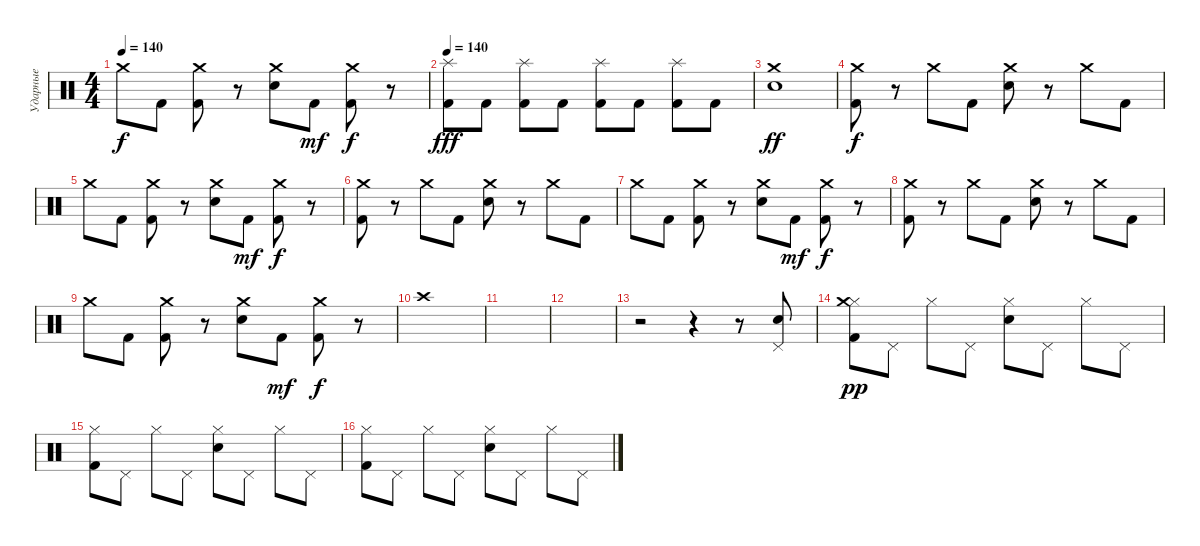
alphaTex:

\track ("Ударные" "Ударные") {instrument percussion}
\staff {score}
\articulation defaults
\ts (4 4)
\tempo 140
\clef neutral
\ks c "Crash medium (hit)".8{dy f} "Kick (hit) 2".8
("Crash medium (hit)" "Kick (hit) 2").8 r.8 ("Crash medium (hit)" "Snare (hit) 2").8 "Kick (hit) 2".8{dy mf} ("Crash medium (hit)" "Kick (hit) 2").8{dy f} r.8 |
\tempo 140
("Splash (hit)" "Kick (hit) 2").8{dy fff} "Kick (hit) 2".8 ("Splash (hit)" "Kick (hit) 2").8 "Kick (hit) 2".8 ("Splash (hit)" "Kick (hit) 2").8 "Kick (hit) 2".8 ("Splash (hit)" "Kick (hit) 2").8 "Kick (hit) 2".8 |
("Crash medium (hit)" "Snare (hit) 2").1{dy ff} |
("Crash medium (hit)" "Kick (hit) 2").8{dy f} r.8 "Crash medium (hit)".8 "Kick (hit) 2".8 ("Crash medium (hit)" "Snare (hit) 2").8 r.8 "Crash medium (hit)".8 "Kick (hit) 2".8 |
"Crash medium (hit)".8 "Kick (hit) 2".8 ("Crash medium (hit)" "Kick (hit) 2").8 r.8 ("Crash medium (hit)" "Snare (hit) 2").8 "Kick (hit) 2".8{dy mf} ("Crash medium (hit)" "Kick (hit) 2").8{dy f} r.8 |
("Crash medium (hit)" "Kick (hit) 2").8 r.8 "Crash medium (hit)".8 "Kick (hit) 2".8 ("Crash medium (hit)" "Snare (hit) 2").8 r.8 "Crash medium (hit)".8 "Kick (hit) 2".8 |
"Crash medium (hit)".8 "Kick (hit) 2".8 ("Crash medium (hit)" "Kick (hit) 2").8 r.8 ("Crash medium (hit)" "Snare (hit) 2").8 "Kick (hit) 2".8{dy mf} ("Crash medium (hit)" "Kick (hit) 2").8{dy f} r.8 |
("Crash medium (hit)" "Kick (hit) 2").8 r.8 "Crash medium (hit)".8 "Kick (hit) 2".8 ("Crash medium (hit)" "Snare (hit) 2").8 r.8 "Crash medium (hit)".8 "Kick (hit) 2".8 |
"Crash medium (hit)".8 "Kick (hit) 2".8 ("Crash medium (hit)" "Kick (hit) 2").8 r.8 ("Crash medium (hit)" "Snare (hit) 2").8 "Kick (hit) 2".8{dy mf} ("Crash medium (hit)" "Kick (hit) 2").8{dy f} r.8 |
"Crash high (hit)".1 |
|
|
r.2 r.4 r.8 ("Pedal Hi-Hat (hit)" "Snare (hit) 2").8 |
("Hi-Hat (closed)" "Crash medium (hit)" "Kick (hit) 2").8{dy pp} "Pedal Hi-Hat (hit)".8 "Hi-Hat (closed)".8 "Pedal Hi-Hat (hit)".8 ("Hi-Hat (closed)" "Snare (hit) 2").8 "Pedal Hi-Hat (hit)".8 "Hi-Hat (closed)".8 "Pedal Hi-Hat (hit)".8 |
("Hi-Hat (closed)" "Kick (hit) 2").8 "Pedal Hi-Hat (hit)".8 "Hi-Hat (closed)".8 "Pedal Hi-Hat (hit)".8 ("Hi-Hat (closed)" "Snare (hit) 2").8 "Pedal Hi-Hat (hit)".8 "Hi-Hat (closed)".8 "Pedal Hi-Hat (hit)".8 |
("Hi-Hat (closed)" "Kick (hit) 2").8 "Pedal Hi-Hat (hit)".8 "Hi-Hat (closed)".8 "Pedal Hi-Hat (hit)".8 ("Hi-Hat (closed)" "Snare (hit) 2").8 "Pedal Hi-Hat (hit)".8 "Hi-Hat (closed)".8 "Pedal Hi-Hat (hit)".8
